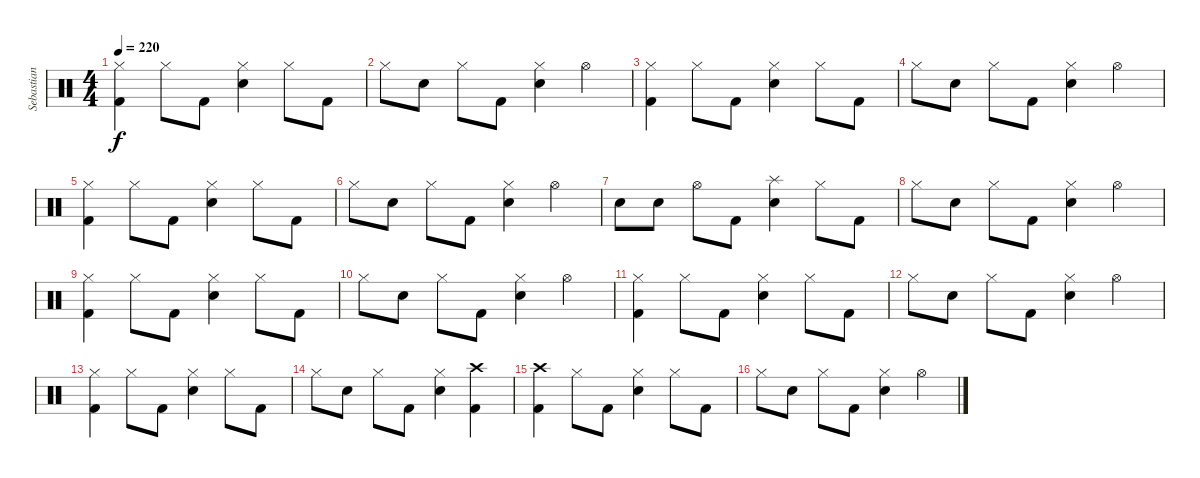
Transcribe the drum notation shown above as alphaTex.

\track ("Sebastian" "Sebastian") {instrument percussion}
\staff {score}
\articulation defaults
\ts (4 4)
\tempo 220
\clef neutral
\ks c
("Hi-Hat (closed)" "Kick (hit) 2").4{dy f} "Hi-Hat (closed)".8 "Kick (hit) 2".8 ("Hi-Hat (closed)" "Snare (hit) 2").4 "Hi-Hat (closed)".8 "Kick (hit) 2".8 |
"Hi-Hat (closed)".8 "Snare (hit) 2".8 "Hi-Hat (closed)".8 "Kick (hit) 2".8 ("Hi-Hat (closed)" "Snare (hit) 2").4 "Hi-Hat (open)".4 |
("Hi-Hat (closed)" "Kick (hit) 2").4 "Hi-Hat (closed)".8 "Kick (hit) 2".8 ("Hi-Hat (closed)" "Snare (hit) 2").4 "Hi-Hat (closed)".8 "Kick (hit) 2".8 |
"Hi-Hat (closed)".8 "Snare (hit) 2".8 "Hi-Hat (closed)".8 "Kick (hit) 2".8 ("Hi-Hat (closed)" "Snare (hit) 2").4 "Hi-Hat (open)".4 |
("Hi-Hat (closed)" "Kick (hit) 2").4 "Hi-Hat (closed)".8 "Kick (hit) 2".8 ("Hi-Hat (closed)" "Snare (hit) 2").4 "Hi-Hat (closed)".8 "Kick (hit) 2".8 |
"Hi-Hat (closed)".8 "Snare (hit) 2".8 "Hi-Hat (closed)".8 "Kick (hit) 2".8 ("Hi-Hat (closed)" "Snare (hit) 2").4 "Hi-Hat (open)".4 |
"Snare (hit) 2".8 "Snare (hit) 2".8 "Hi-Hat (open)".8 "Kick (hit) 2".8 ("Splash (hit)" "Snare (hit) 2").4 "Hi-Hat (closed)".8 "Kick (hit) 2".8 |
"Hi-Hat (closed)".8 "Snare (hit) 2".8 "Hi-Hat (closed)".8 "Kick (hit) 2".8 ("Hi-Hat (closed)" "Snare (hit) 2").4 "Hi-Hat (open)".4 |
("Hi-Hat (closed)" "Kick (hit) 2").4 "Hi-Hat (closed)".8 "Kick (hit) 2".8 ("Hi-Hat (closed)" "Snare (hit) 2").4 "Hi-Hat (closed)".8 "Kick (hit) 2".8 |
"Hi-Hat (closed)".8 "Snare (hit) 2".8 "Hi-Hat (closed)".8 "Kick (hit) 2".8 ("Hi-Hat (closed)" "Snare (hit) 2").4 "Hi-Hat (open)".4 |
("Hi-Hat (closed)" "Kick (hit) 2").4 "Hi-Hat (closed)".8 "Kick (hit) 2".8 ("Hi-Hat (closed)" "Snare (hit) 2").4 "Hi-Hat (closed)".8 "Kick (hit) 2".8 |
"Hi-Hat (closed)".8 "Snare (hit) 2".8 "Hi-Hat (closed)".8 "Kick (hit) 2".8 ("Hi-Hat (closed)" "Snare (hit) 2").4 "Hi-Hat (open)".4 |
("Hi-Hat (closed)" "Kick (hit) 2").4 "Hi-Hat (closed)".8 "Kick (hit) 2".8 ("Hi-Hat (closed)" "Snare (hit) 2").4 "Hi-Hat (closed)".8 "Kick (hit) 2".8 |
"Hi-Hat (closed)".8 "Snare (hit) 2".8 "Hi-Hat (closed)".8 "Kick (hit) 2".8 ("Hi-Hat (closed)" "Snare (hit) 2").4 ("Crash high (hit)" "Kick (hit) 2").4 |
("Crash high (hit)" "Kick (hit) 2").4 "Hi-Hat (closed)".8 "Kick (hit) 2".8 ("Hi-Hat (closed)" "Snare (hit) 2").4 "Hi-Hat (closed)".8 "Kick (hit) 2".8 |
"Hi-Hat (closed)".8 "Snare (hit) 2".8 "Hi-Hat (closed)".8 "Kick (hit) 2".8 ("Hi-Hat (closed)" "Snare (hit) 2").4 "Hi-Hat (open)".4
